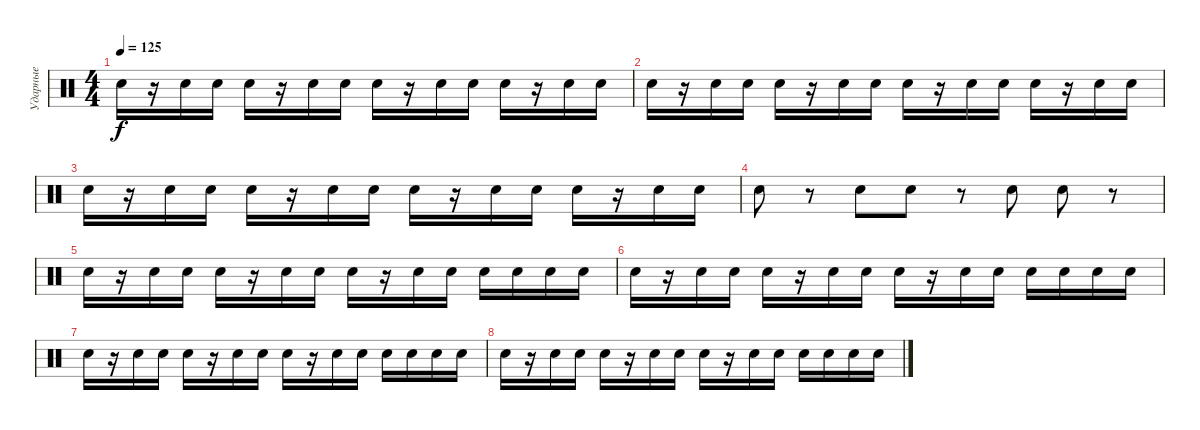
\track ("Ударные" "Ударные") {instrument percussion}
\staff {score}
\articulation defaults
\ts (4 4)
\tempo 125
\clef neutral
\ks c "Electric Snare (hit)".16{dy f}
r.16 "Electric Snare (hit)".16 "Electric Snare (hit)".16 "Electric Snare (hit)".16 r.16 "Electric Snare (hit)".16 "Electric Snare (hit)".16 "Electric Snare (hit)".16 r.16 "Electric Snare (hit)".16 "Electric Snare (hit)".16 "Electric Snare (hit)".16 r.16 "Electric Snare (hit)".16 "Electric Snare (hit)".16 |
"Electric Snare (hit)".16 r.16 "Electric Snare (hit)".16 "Electric Snare (hit)".16 "Electric Snare (hit)".16 r.16 "Electric Snare (hit)".16 "Electric Snare (hit)".16 "Electric Snare (hit)".16 r.16 "Electric Snare (hit)".16 "Electric Snare (hit)".16 "Electric Snare (hit)".16 r.16 "Electric Snare (hit)".16 "Electric Snare (hit)".16 |
"Electric Snare (hit)".16 r.16 "Electric Snare (hit)".16 "Electric Snare (hit)".16 "Electric Snare (hit)".16 r.16 "Electric Snare (hit)".16 "Electric Snare (hit)".16 "Electric Snare (hit)".16 r.16 "Electric Snare (hit)".16 "Electric Snare (hit)".16 "Electric Snare (hit)".16 r.16 "Electric Snare (hit)".16 "Electric Snare (hit)".16 |
"Electric Snare (hit)".8 r.8 "Electric Snare (hit)".8 "Electric Snare (hit)".8 r.8 "Electric Snare (hit)".8 "Electric Snare (hit)".8 r.8 |
"Electric Snare (hit)".16 r.16 "Electric Snare (hit)".16 "Electric Snare (hit)".16 "Electric Snare (hit)".16 r.16 "Electric Snare (hit)".16 "Electric Snare (hit)".16 "Electric Snare (hit)".16 r.16 "Electric Snare (hit)".16 "Electric Snare (hit)".16 "Electric Snare (hit)".16 "Electric Snare (hit)".16 "Electric Snare (hit)".16 "Electric Snare (hit)".16 |
"Electric Snare (hit)".16 r.16 "Electric Snare (hit)".16 "Electric Snare (hit)".16 "Electric Snare (hit)".16 r.16 "Electric Snare (hit)".16 "Electric Snare (hit)".16 "Electric Snare (hit)".16 r.16 "Electric Snare (hit)".16 "Electric Snare (hit)".16 "Electric Snare (hit)".16 "Electric Snare (hit)".16 "Electric Snare (hit)".16 "Electric Snare (hit)".16 |
"Electric Snare (hit)".16 r.16 "Electric Snare (hit)".16 "Electric Snare (hit)".16 "Electric Snare (hit)".16 r.16 "Electric Snare (hit)".16 "Electric Snare (hit)".16 "Electric Snare (hit)".16 r.16 "Electric Snare (hit)".16 "Electric Snare (hit)".16 "Electric Snare (hit)".16 "Electric Snare (hit)".16 "Electric Snare (hit)".16 "Electric Snare (hit)".16 |
"Electric Snare (hit)".16 r.16 "Electric Snare (hit)".16 "Electric Snare (hit)".16 "Electric Snare (hit)".16 r.16 "Electric Snare (hit)".16 "Electric Snare (hit)".16 "Electric Snare (hit)".16 r.16 "Electric Snare (hit)".16 "Electric Snare (hit)".16 "Electric Snare (hit)".16 "Electric Snare (hit)".16 "Electric Snare (hit)".16 "Electric Snare (hit)".16
